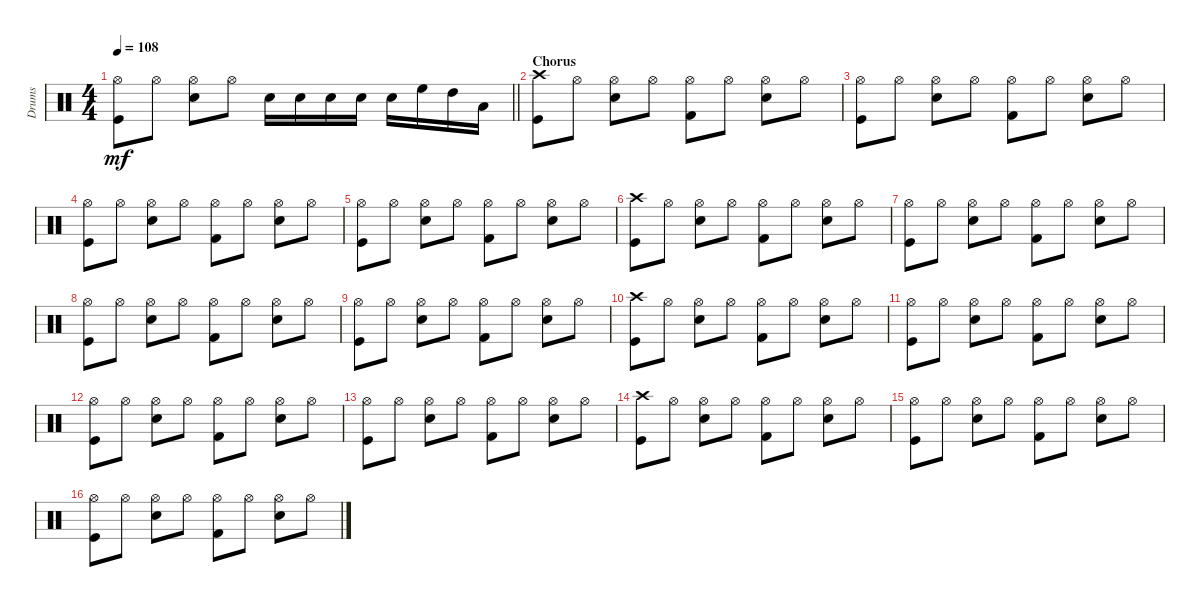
\track ("Drums" "Drums") {instrument percussion}
\staff {score}
\articulation defaults
\ts (4 4)
\tempo 108
\clef neutral
\barLineRight lightlight
\ks c
("Kick (hit)" "Hi-Hat (open)").8{dy mf} "Hi-Hat (open)".8 ("Snare (hit) 2" "Hi-Hat (open)").8 "Hi-Hat (open)".8 "Snare (hit) 2".16 "Snare (hit) 2".16 "Snare (hit) 2".16 "Snare (hit) 2".16 "Snare (hit) 2".16 "High Floor Tom (hit)".16 "High Tom (hit)".16 "Low Floor Tom (hit)".16 |
\section ("" "Chorus")
("Crash high (hit)" "Kick (hit)").8 "Hi-Hat (open)".8 ("Hi-Hat (open)" "Snare (hit) 2").8 "Hi-Hat (open)".8 ("Hi-Hat (open)" "Kick (hit) 2").8 "Hi-Hat (open)".8 ("Hi-Hat (open)" "Snare (hit) 2").8 "Hi-Hat (open)".8 |
("Hi-Hat (open)" "Kick (hit)").8 "Hi-Hat (open)".8 ("Hi-Hat (open)" "Snare (hit) 2").8 "Hi-Hat (open)".8 ("Hi-Hat (open)" "Kick (hit) 2").8 "Hi-Hat (open)".8 ("Hi-Hat (open)" "Snare (hit) 2").8 "Hi-Hat (open)".8 |
("Hi-Hat (open)" "Kick (hit)").8 "Hi-Hat (open)".8 ("Hi-Hat (open)" "Snare (hit) 2").8 "Hi-Hat (open)".8 ("Hi-Hat (open)" "Kick (hit) 2").8 "Hi-Hat (open)".8 ("Hi-Hat (open)" "Snare (hit) 2").8 "Hi-Hat (open)".8 |
("Hi-Hat (open)" "Kick (hit)").8 "Hi-Hat (open)".8 ("Hi-Hat (open)" "Snare (hit) 2").8 "Hi-Hat (open)".8 ("Hi-Hat (open)" "Kick (hit) 2").8 "Hi-Hat (open)".8 ("Hi-Hat (open)" "Snare (hit) 2").8 "Hi-Hat (open)".8 |
("Crash high (hit)" "Kick (hit)").8 "Hi-Hat (open)".8 ("Hi-Hat (open)" "Snare (hit) 2").8 "Hi-Hat (open)".8 ("Hi-Hat (open)" "Kick (hit) 2").8 "Hi-Hat (open)".8 ("Hi-Hat (open)" "Snare (hit) 2").8 "Hi-Hat (open)".8 |
("Hi-Hat (open)" "Kick (hit)").8 "Hi-Hat (open)".8 ("Hi-Hat (open)" "Snare (hit) 2").8 "Hi-Hat (open)".8 ("Hi-Hat (open)" "Kick (hit) 2").8 "Hi-Hat (open)".8 ("Hi-Hat (open)" "Snare (hit) 2").8 "Hi-Hat (open)".8 |
("Hi-Hat (open)" "Kick (hit)").8 "Hi-Hat (open)".8 ("Hi-Hat (open)" "Snare (hit) 2").8 "Hi-Hat (open)".8 ("Hi-Hat (open)" "Kick (hit) 2").8 "Hi-Hat (open)".8 ("Hi-Hat (open)" "Snare (hit) 2").8 "Hi-Hat (open)".8 |
("Hi-Hat (open)" "Kick (hit)").8 "Hi-Hat (open)".8 ("Hi-Hat (open)" "Snare (hit) 2").8 "Hi-Hat (open)".8 ("Hi-Hat (open)" "Kick (hit) 2").8 "Hi-Hat (open)".8 ("Hi-Hat (open)" "Snare (hit) 2").8 "Hi-Hat (open)".8 |
("Crash high (hit)" "Kick (hit)").8 "Hi-Hat (open)".8 ("Hi-Hat (open)" "Snare (hit) 2").8 "Hi-Hat (open)".8 ("Hi-Hat (open)" "Kick (hit) 2").8 "Hi-Hat (open)".8 ("Hi-Hat (open)" "Snare (hit) 2").8 "Hi-Hat (open)".8 |
("Hi-Hat (open)" "Kick (hit)").8 "Hi-Hat (open)".8 ("Hi-Hat (open)" "Snare (hit) 2").8 "Hi-Hat (open)".8 ("Hi-Hat (open)" "Kick (hit) 2").8 "Hi-Hat (open)".8 ("Hi-Hat (open)" "Snare (hit) 2").8 "Hi-Hat (open)".8 |
("Hi-Hat (open)" "Kick (hit)").8 "Hi-Hat (open)".8 ("Hi-Hat (open)" "Snare (hit) 2").8 "Hi-Hat (open)".8 ("Hi-Hat (open)" "Kick (hit) 2").8 "Hi-Hat (open)".8 ("Hi-Hat (open)" "Snare (hit) 2").8 "Hi-Hat (open)".8 |
("Hi-Hat (open)" "Kick (hit)").8 "Hi-Hat (open)".8 ("Hi-Hat (open)" "Snare (hit) 2").8 "Hi-Hat (open)".8 ("Hi-Hat (open)" "Kick (hit) 2").8 "Hi-Hat (open)".8 ("Hi-Hat (open)" "Snare (hit) 2").8 "Hi-Hat (open)".8 |
("Crash high (hit)" "Kick (hit)").8 "Hi-Hat (open)".8 ("Hi-Hat (open)" "Snare (hit) 2").8 "Hi-Hat (open)".8 ("Hi-Hat (open)" "Kick (hit) 2").8 "Hi-Hat (open)".8 ("Hi-Hat (open)" "Snare (hit) 2").8 "Hi-Hat (open)".8 |
("Hi-Hat (open)" "Kick (hit)").8 "Hi-Hat (open)".8 ("Hi-Hat (open)" "Snare (hit) 2").8 "Hi-Hat (open)".8 ("Hi-Hat (open)" "Kick (hit) 2").8 "Hi-Hat (open)".8 ("Hi-Hat (open)" "Snare (hit) 2").8 "Hi-Hat (open)".8 |
("Hi-Hat (open)" "Kick (hit)").8 "Hi-Hat (open)".8 ("Hi-Hat (open)" "Snare (hit) 2").8 "Hi-Hat (open)".8 ("Hi-Hat (open)" "Kick (hit) 2").8 "Hi-Hat (open)".8 ("Hi-Hat (open)" "Snare (hit) 2").8 "Hi-Hat (open)".8
